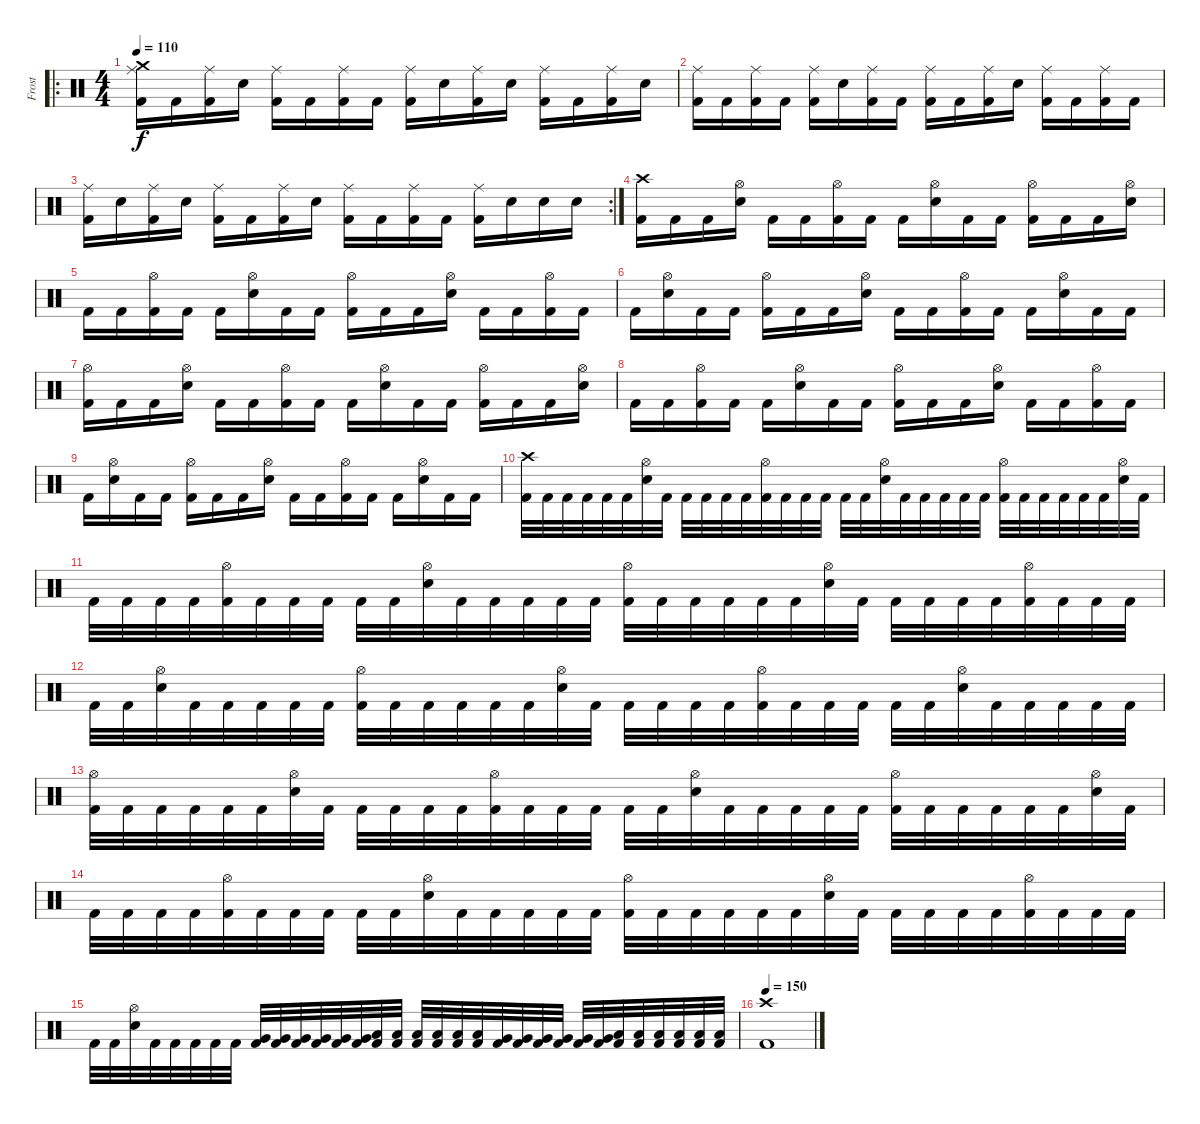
\track ("Frost" "Frost") {instrument percussion}
\staff {score}
\articulation defaults
\ro
\ts (4 4)
\tempo 110
\clef neutral
\ks c
("Crash medium (hit)" "Ride (middle)" "Kick (hit) 2").16{dy f} "Kick (hit) 2".16 ("Ride (middle)" "Kick (hit) 2").16 "Snare (hit) 2".16 ("Ride (middle)" "Kick (hit) 2").16 "Kick (hit) 2".16 ("Ride (middle)" "Kick (hit) 2").16 "Kick (hit) 2".16 ("Ride (middle)" "Kick (hit) 2").16 "Snare (hit) 2".16 ("Ride (middle)" "Kick (hit) 2").16 "Snare (hit) 2".16 ("Ride (middle)" "Kick (hit) 2").16 "Kick (hit) 2".16 ("Ride (middle)" "Kick (hit) 2").16 "Snare (hit) 2".16 |
("Ride (middle)" "Kick (hit) 2").16 "Kick (hit) 2".16 ("Ride (middle)" "Kick (hit) 2").16 "Kick (hit) 2".16 ("Ride (middle)" "Kick (hit) 2").16 "Snare (hit) 2".16 ("Ride (middle)" "Kick (hit) 2").16 "Kick (hit) 2".16 ("Ride (middle)" "Kick (hit) 2").16 "Kick (hit) 2".16 ("Ride (middle)" "Kick (hit) 2").16 "Snare (hit) 2".16 ("Ride (middle)" "Kick (hit) 2").16 "Kick (hit) 2".16 ("Ride (middle)" "Kick (hit) 2").16 "Kick (hit) 2".16 |
\rc 2
("Ride (middle)" "Kick (hit) 2").16 "Snare (hit) 2".16 ("Ride (middle)" "Kick (hit) 2").16 "Snare (hit) 2".16 ("Ride (middle)" "Kick (hit) 2").16 "Kick (hit) 2".16 ("Ride (middle)" "Kick (hit) 2").16 "Snare (hit) 2".16 ("Ride (middle)" "Kick (hit) 2").16 "Kick (hit) 2".16 ("Ride (middle)" "Kick (hit) 2").16 "Kick (hit) 2".16 ("Ride (middle)" "Kick (hit) 2").16 "Snare (hit) 2".16 "Snare (hit) 2".16 "Snare (hit) 2".16 |
("Crash high (hit)" "Kick (hit) 2").16 "Kick (hit) 2".16 "Kick (hit) 2".16 ("Hi-Hat (open)" "Snare (hit) 2").16 "Kick (hit) 2".16 "Kick (hit) 2".16 ("Hi-Hat (open)" "Kick (hit) 2").16 "Kick (hit) 2".16 "Kick (hit) 2".16 ("Hi-Hat (open)" "Snare (hit) 2").16 "Kick (hit) 2".16 "Kick (hit) 2".16 ("Hi-Hat (open)" "Kick (hit) 2").16 "Kick (hit) 2".16 "Kick (hit) 2".16 ("Hi-Hat (open)" "Snare (hit) 2").16 |
"Kick (hit) 2".16 "Kick (hit) 2".16 ("Hi-Hat (open)" "Kick (hit) 2").16 "Kick (hit) 2".16 "Kick (hit) 2".16 ("Hi-Hat (open)" "Snare (hit) 2").16 "Kick (hit) 2".16 "Kick (hit) 2".16 ("Hi-Hat (open)" "Kick (hit) 2").16 "Kick (hit) 2".16 "Kick (hit) 2".16 ("Hi-Hat (open)" "Snare (hit) 2").16 "Kick (hit) 2".16 "Kick (hit) 2".16 ("Hi-Hat (open)" "Kick (hit) 2").16 "Kick (hit) 2".16 |
"Kick (hit) 2".16 ("Hi-Hat (open)" "Snare (hit) 2").16 "Kick (hit) 2".16 "Kick (hit) 2".16 ("Hi-Hat (open)" "Kick (hit) 2").16 "Kick (hit) 2".16 "Kick (hit) 2".16 ("Hi-Hat (open)" "Snare (hit) 2").16 "Kick (hit) 2".16 "Kick (hit) 2".16 ("Hi-Hat (open)" "Kick (hit) 2").16 "Kick (hit) 2".16 "Kick (hit) 2".16 ("Hi-Hat (open)" "Snare (hit) 2").16 "Kick (hit) 2".16 "Kick (hit) 2".16 |
("Hi-Hat (open)" "Kick (hit) 2").16 "Kick (hit) 2".16 "Kick (hit) 2".16 ("Hi-Hat (open)" "Snare (hit) 2").16 "Kick (hit) 2".16 "Kick (hit) 2".16 ("Hi-Hat (open)" "Kick (hit) 2").16 "Kick (hit) 2".16 "Kick (hit) 2".16 ("Hi-Hat (open)" "Snare (hit) 2").16 "Kick (hit) 2".16 "Kick (hit) 2".16 ("Hi-Hat (open)" "Kick (hit) 2").16 "Kick (hit) 2".16 "Kick (hit) 2".16 ("Hi-Hat (open)" "Snare (hit) 2").16 |
"Kick (hit) 2".16 "Kick (hit) 2".16 ("Hi-Hat (open)" "Kick (hit) 2").16 "Kick (hit) 2".16 "Kick (hit) 2".16 ("Hi-Hat (open)" "Snare (hit) 2").16 "Kick (hit) 2".16 "Kick (hit) 2".16 ("Hi-Hat (open)" "Kick (hit) 2").16 "Kick (hit) 2".16 "Kick (hit) 2".16 ("Hi-Hat (open)" "Snare (hit) 2").16 "Kick (hit) 2".16 "Kick (hit) 2".16 ("Hi-Hat (open)" "Kick (hit) 2").16 "Kick (hit) 2".16 |
"Kick (hit) 2".16 ("Hi-Hat (open)" "Snare (hit) 2").16 "Kick (hit) 2".16 "Kick (hit) 2".16 ("Hi-Hat (open)" "Kick (hit) 2").16 "Kick (hit) 2".16 "Kick (hit) 2".16 ("Hi-Hat (open)" "Snare (hit) 2").16 "Kick (hit) 2".16 "Kick (hit) 2".16 ("Hi-Hat (open)" "Kick (hit) 2").16 "Kick (hit) 2".16 "Kick (hit) 2".16 ("Hi-Hat (open)" "Snare (hit) 2").16 "Kick (hit) 2".16 "Kick (hit) 2".16 |
("Crash high (hit)" "Kick (hit) 2").32 "Kick (hit) 2".32 "Kick (hit) 2".32 "Kick (hit) 2".32 "Kick (hit) 2".32 "Kick (hit) 2".32 ("Hi-Hat (open)" "Snare (hit) 2").32 "Kick (hit) 2".32 "Kick (hit) 2".32 "Kick (hit) 2".32 "Kick (hit) 2".32 "Kick (hit) 2".32 ("Hi-Hat (open)" "Kick (hit) 2").32 "Kick (hit) 2".32 "Kick (hit) 2".32 "Kick (hit) 2".32 "Kick (hit) 2".32 "Kick (hit) 2".32 ("Hi-Hat (open)" "Snare (hit) 2").32 "Kick (hit) 2".32 "Kick (hit) 2".32 "Kick (hit) 2".32 "Kick (hit) 2".32 "Kick (hit) 2".32 ("Hi-Hat (open)" "Kick (hit) 2").32 "Kick (hit) 2".32 "Kick (hit) 2".32 "Kick (hit) 2".32 "Kick (hit) 2".32 "Kick (hit) 2".32 ("Hi-Hat (open)" "Snare (hit) 2").32 "Kick (hit) 2".32 |
"Kick (hit) 2".32 "Kick (hit) 2".32 "Kick (hit) 2".32 "Kick (hit) 2".32 ("Hi-Hat (open)" "Kick (hit) 2").32 "Kick (hit) 2".32 "Kick (hit) 2".32 "Kick (hit) 2".32 "Kick (hit) 2".32 "Kick (hit) 2".32 ("Hi-Hat (open)" "Snare (hit) 2").32 "Kick (hit) 2".32 "Kick (hit) 2".32 "Kick (hit) 2".32 "Kick (hit) 2".32 "Kick (hit) 2".32 ("Hi-Hat (open)" "Kick (hit) 2").32 "Kick (hit) 2".32 "Kick (hit) 2".32 "Kick (hit) 2".32 "Kick (hit) 2".32 "Kick (hit) 2".32 ("Hi-Hat (open)" "Snare (hit) 2").32 "Kick (hit) 2".32 "Kick (hit) 2".32 "Kick (hit) 2".32 "Kick (hit) 2".32 "Kick (hit) 2".32 ("Hi-Hat (open)" "Kick (hit) 2").32 "Kick (hit) 2".32 "Kick (hit) 2".32 "Kick (hit) 2".32 |
"Kick (hit) 2".32 "Kick (hit) 2".32 ("Hi-Hat (open)" "Snare (hit) 2").32 "Kick (hit) 2".32 "Kick (hit) 2".32 "Kick (hit) 2".32 "Kick (hit) 2".32 "Kick (hit) 2".32 ("Hi-Hat (open)" "Kick (hit) 2").32 "Kick (hit) 2".32 "Kick (hit) 2".32 "Kick (hit) 2".32 "Kick (hit) 2".32 "Kick (hit) 2".32 ("Hi-Hat (open)" "Snare (hit) 2").32 "Kick (hit) 2".32 "Kick (hit) 2".32 "Kick (hit) 2".32 "Kick (hit) 2".32 "Kick (hit) 2".32 ("Hi-Hat (open)" "Kick (hit) 2").32 "Kick (hit) 2".32 "Kick (hit) 2".32 "Kick (hit) 2".32 "Kick (hit) 2".32 "Kick (hit) 2".32 ("Hi-Hat (open)" "Snare (hit) 2").32 "Kick (hit) 2".32 "Kick (hit) 2".32 "Kick (hit) 2".32 "Kick (hit) 2".32 "Kick (hit) 2".32 |
("Hi-Hat (open)" "Kick (hit) 2").32 "Kick (hit) 2".32 "Kick (hit) 2".32 "Kick (hit) 2".32 "Kick (hit) 2".32 "Kick (hit) 2".32 ("Hi-Hat (open)" "Snare (hit) 2").32 "Kick (hit) 2".32 "Kick (hit) 2".32 "Kick (hit) 2".32 "Kick (hit) 2".32 "Kick (hit) 2".32 ("Hi-Hat (open)" "Kick (hit) 2").32 "Kick (hit) 2".32 "Kick (hit) 2".32 "Kick (hit) 2".32 "Kick (hit) 2".32 "Kick (hit) 2".32 ("Hi-Hat (open)" "Snare (hit) 2").32 "Kick (hit) 2".32 "Kick (hit) 2".32 "Kick (hit) 2".32 "Kick (hit) 2".32 "Kick (hit) 2".32 ("Hi-Hat (open)" "Kick (hit) 2").32 "Kick (hit) 2".32 "Kick (hit) 2".32 "Kick (hit) 2".32 "Kick (hit) 2".32 "Kick (hit) 2".32 ("Hi-Hat (open)" "Snare (hit) 2").32 "Kick (hit) 2".32 |
"Kick (hit) 2".32 "Kick (hit) 2".32 "Kick (hit) 2".32 "Kick (hit) 2".32 ("Hi-Hat (open)" "Kick (hit) 2").32 "Kick (hit) 2".32 "Kick (hit) 2".32 "Kick (hit) 2".32 "Kick (hit) 2".32 "Kick (hit) 2".32 ("Hi-Hat (open)" "Snare (hit) 2").32 "Kick (hit) 2".32 "Kick (hit) 2".32 "Kick (hit) 2".32 "Kick (hit) 2".32 "Kick (hit) 2".32 ("Hi-Hat (open)" "Kick (hit) 2").32 "Kick (hit) 2".32 "Kick (hit) 2".32 "Kick (hit) 2".32 "Kick (hit) 2".32 "Kick (hit) 2".32 ("Hi-Hat (open)" "Snare (hit) 2").32 "Kick (hit) 2".32 "Kick (hit) 2".32 "Kick (hit) 2".32 "Kick (hit) 2".32 "Kick (hit) 2".32 ("Hi-Hat (open)" "Kick (hit) 2").32 "Kick (hit) 2".32 "Kick (hit) 2".32 "Kick (hit) 2".32 |
"Kick (hit) 2".32 "Kick (hit) 2".32 ("Hi-Hat (open)" "Snare (hit) 2").32 "Kick (hit) 2".32 "Kick (hit) 2".32 "Kick (hit) 2".32 "Kick (hit) 2".32 "Kick (hit) 2".32 ("Very Low Tom (hit)" "Kick (hit) 2").32 ("Very Low Tom (hit)" "Kick (hit) 2").32 ("Very Low Tom (hit)" "Kick (hit) 2").32 ("Very Low Tom (hit)" "Kick (hit) 2").32 ("Very Low Tom (hit)" "Kick (hit) 2").32 ("Very Low Tom (hit)" "Kick (hit) 2").32 ("Low Floor Tom (hit)" "Kick (hit) 2").32 ("Low Floor Tom (hit)" "Kick (hit) 2").32 ("Low Floor Tom (hit)" "Kick (hit) 2").32 ("Low Floor Tom (hit)" "Kick (hit) 2").32 ("Low Floor Tom (hit)" "Kick (hit) 2").32 ("Low Floor Tom (hit)" "Kick (hit) 2").32 ("Very Low Tom (hit)" "Kick (hit) 2").32 ("Very Low Tom (hit)" "Kick (hit) 2").32 ("Very Low Tom (hit)" "Kick (hit) 2").32 ("Very Low Tom (hit)" "Kick (hit) 2").32 ("Very Low Tom (hit)" "Kick (hit) 2").32 ("Very Low Tom (hit)" "Kick (hit) 2").32 ("Low Floor Tom (hit)" "Kick (hit) 2").32 ("Low Floor Tom (hit)" "Kick (hit) 2").32 ("Low Floor Tom (hit)" "Kick (hit) 2").32 ("Low Floor Tom (hit)" "Kick (hit) 2").32 ("Low Floor Tom (hit)" "Kick (hit) 2").32 ("Low Floor Tom (hit)" "Kick (hit) 2").32 |
\tempo 150
("Crash high (hit)" "Kick (hit) 2").1
